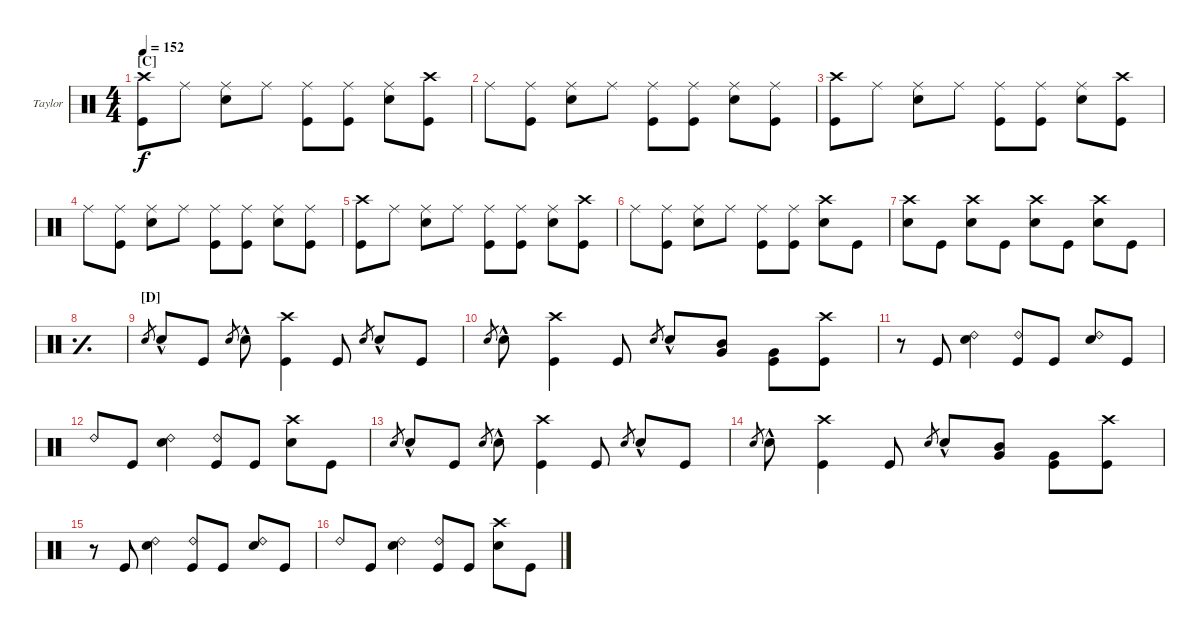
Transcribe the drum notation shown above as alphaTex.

\defaultSystemsLayout 4
\bracketExtendMode nobrackets
\firstSystemTrackNameOrientation horizontal
\otherSystemsTrackNameOrientation horizontal
\track ("Drums (Taylor Hawkins)" "Taylor") {instrument percussion}
\staff {score}
\articulation defaults
\ts (4 4)
\section ("C" "")
\tempo 152
\clef neutral
\ks c
("Crash high (hit)" "Kick (hit)").8{dy f} "Ride (middle)".8 ("Ride (middle)" "Snare (hit) 2").8 "Ride (middle)".8 ("Ride (middle)" "Kick (hit)").8 ("Ride (middle)" "Kick (hit)").8 ("Ride (middle)" "Snare (hit) 2").8 ("Kick (hit)" "Crash high (hit)").8 |
"Ride (middle)".8 ("Ride (middle)" "Kick (hit)").8 ("Ride (middle)" "Snare (hit) 2").8 "Ride (middle)".8 ("Ride (middle)" "Kick (hit)").8 ("Ride (middle)" "Kick (hit)").8 ("Ride (middle)" "Snare (hit) 2").8 ("Ride (middle)" "Kick (hit)").8 |
("Crash high (hit)" "Kick (hit)").8 "Ride (middle)".8 ("Ride (middle)" "Snare (hit) 2").8 "Ride (middle)".8 ("Ride (middle)" "Kick (hit)").8 ("Ride (middle)" "Kick (hit)").8 ("Ride (middle)" "Snare (hit) 2").8 ("Kick (hit)" "Crash high (hit)").8 |
"Ride (middle)".8 ("Ride (middle)" "Kick (hit)").8 ("Ride (middle)" "Snare (hit) 2").8 "Ride (middle)".8 ("Ride (middle)" "Kick (hit)").8 ("Ride (middle)" "Kick (hit)").8 ("Ride (middle)" "Snare (hit) 2").8 ("Ride (middle)" "Kick (hit)").8 |
("Crash high (hit)" "Kick (hit)").8 "Ride (middle)".8 ("Ride (middle)" "Snare (hit) 2").8 "Ride (middle)".8 ("Ride (middle)" "Kick (hit)").8 ("Ride (middle)" "Kick (hit)").8 ("Ride (middle)" "Snare (hit) 2").8 ("Kick (hit)" "Crash high (hit)").8 |
"Ride (middle)".8 ("Ride (middle)" "Kick (hit)").8 ("Ride (middle)" "Snare (hit) 2").8 "Ride (middle)".8 ("Ride (middle)" "Kick (hit)").8 ("Ride (middle)" "Kick (hit)").8 ("Snare (hit) 2" "Crash high (hit)").8 "Kick (hit)".8 |
("Crash high (hit)" "Snare (hit) 2").8 "Kick (hit)".8 ("Crash high (hit)" "Snare (hit) 2").8 "Kick (hit)".8 ("Crash high (hit)" "Snare (hit) 2").8 "Kick (hit)".8 ("Crash high (hit)" "Snare (hit) 2").8 "Kick (hit)".8 |
\simile simple
|
\section ("D" "")
\simile none "Snare (hit) 2".8{gr} "Snare (hit) 2"{hac}.8 "Kick (hit)".8 "Snare (hit) 2".8{gr} "Snare (hit) 2"{hac}.8
("Kick (hit)" "Crash high (hit)").4 "Kick (hit)".8 "Snare (hit) 2".8{gr} "Snare (hit) 2"{hac}.8 "Kick (hit)".8 |
"Snare (hit) 2".8{gr} "Snare (hit) 2"{hac}.8 ("Crash high (hit)" "Kick (hit)").4 "Kick (hit)".8 "Snare (hit) 2".8{gr} "Snare (hit) 2"{hac}.8 ("Mid Tom (hit)" "Very Low Tom (hit)").8 ("Very Low Tom (hit)" "Kick (hit)").8 ("Crash high (hit)" "Kick (hit)").8 |
r.8 "Kick (hit)".8 ("Snare (hit) 2" "Ride (bell) 2").4 ("Ride (bell) 2" "Kick (hit)").8 "Kick (hit)".8 ("Snare (hit) 2" "Ride (bell) 2").8 "Kick (hit)".8 |
"Ride (bell) 2".8 "Kick (hit)".8 ("Snare (hit) 2" "Ride (bell) 2").4 ("Kick (hit)" "Ride (bell) 2").8 "Kick (hit)".8 ("Snare (hit) 2" "Crash high (hit)").8 "Kick (hit)".8 |
"Snare (hit) 2".8{gr} "Snare (hit) 2"{hac}.8 "Kick (hit)".8 "Snare (hit) 2".8{gr} "Snare (hit) 2"{hac}.8 ("Kick (hit)" "Crash high (hit)").4 "Kick (hit)".8 "Snare (hit) 2".8{gr} "Snare (hit) 2"{hac}.8 "Kick (hit)".8 |
"Snare (hit) 2".8{gr} "Snare (hit) 2"{hac}.8 ("Crash high (hit)" "Kick (hit)").4 "Kick (hit)".8 "Snare (hit) 2".8{gr} "Snare (hit) 2"{hac}.8 ("Mid Tom (hit)" "Very Low Tom (hit)").8 ("Very Low Tom (hit)" "Kick (hit)").8 ("Crash high (hit)" "Kick (hit)").8 |
r.8 "Kick (hit)".8 ("Snare (hit) 2" "Ride (bell) 2").4 ("Ride (bell) 2" "Kick (hit)").8 "Kick (hit)".8 ("Snare (hit) 2" "Ride (bell) 2").8 "Kick (hit)".8 |
"Ride (bell) 2".8 "Kick (hit)".8 ("Snare (hit) 2" "Ride (bell) 2").4 ("Kick (hit)" "Ride (bell) 2").8 "Kick (hit)".8 ("Snare (hit) 2" "Crash high (hit)").8 "Kick (hit)".8
